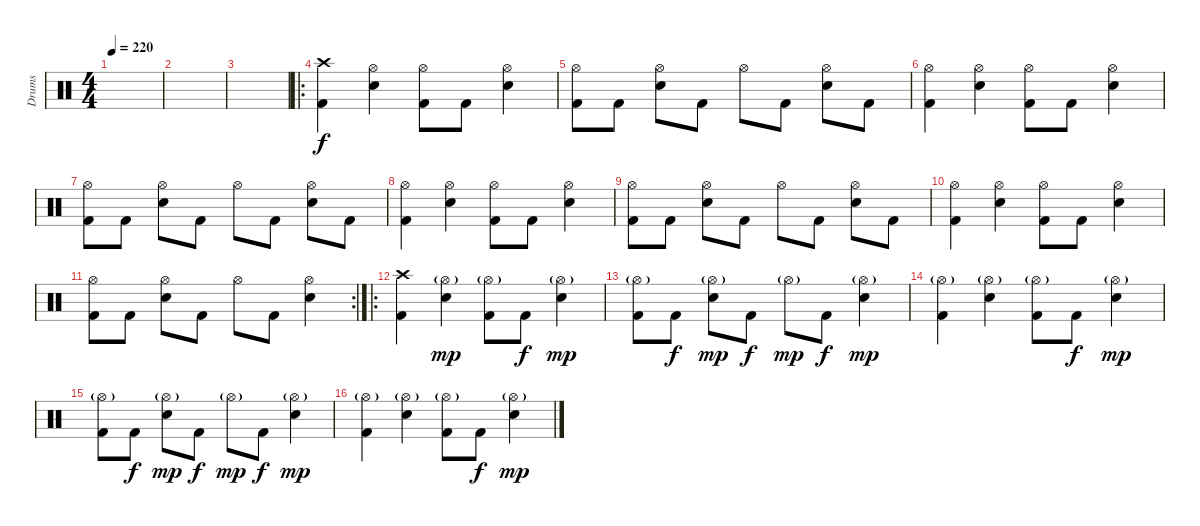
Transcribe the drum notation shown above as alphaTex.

\track ("Drums" "Drums") {instrument percussion}
\staff {score}
\articulation defaults
\ts (4 4)
\tempo 220
\clef neutral
\ks c
|
|
|
\ro
("Crash high (hit)" "Kick (hit) 2").4 ("Hi-Hat (open)" "Snare (hit) 2").4 ("Hi-Hat (open)" "Kick (hit) 2").8 "Kick (hit) 2".8 ("Hi-Hat (open)" "Snare (hit) 2").4 |
("Hi-Hat (open)" "Kick (hit) 2").8 "Kick (hit) 2".8 ("Hi-Hat (open)" "Snare (hit) 2").8 "Kick (hit) 2".8 "Hi-Hat (open)".8 "Kick (hit) 2".8 ("Hi-Hat (open)" "Snare (hit) 2").8 "Kick (hit) 2".8 |
("Hi-Hat (open)" "Kick (hit) 2").4 ("Hi-Hat (open)" "Snare (hit) 2").4 ("Hi-Hat (open)" "Kick (hit) 2").8 "Kick (hit) 2".8 ("Hi-Hat (open)" "Snare (hit) 2").4 |
("Hi-Hat (open)" "Kick (hit) 2").8 "Kick (hit) 2".8 ("Hi-Hat (open)" "Snare (hit) 2").8 "Kick (hit) 2".8 "Hi-Hat (open)".8 "Kick (hit) 2".8 ("Hi-Hat (open)" "Snare (hit) 2").8 "Kick (hit) 2".8 |
("Hi-Hat (open)" "Kick (hit) 2").4 ("Hi-Hat (open)" "Snare (hit) 2").4 ("Hi-Hat (open)" "Kick (hit) 2").8 "Kick (hit) 2".8 ("Hi-Hat (open)" "Snare (hit) 2").4 |
("Hi-Hat (open)" "Kick (hit) 2").8 "Kick (hit) 2".8 ("Hi-Hat (open)" "Snare (hit) 2").8 "Kick (hit) 2".8 "Hi-Hat (open)".8 "Kick (hit) 2".8 ("Hi-Hat (open)" "Snare (hit) 2").8 "Kick (hit) 2".8 |
("Hi-Hat (open)" "Kick (hit) 2").4 ("Hi-Hat (open)" "Snare (hit) 2").4 ("Hi-Hat (open)" "Kick (hit) 2").8 "Kick (hit) 2".8 ("Hi-Hat (open)" "Snare (hit) 2").4 |
\rc 2
("Hi-Hat (open)" "Kick (hit) 2").8 "Kick (hit) 2".8 ("Hi-Hat (open)" "Snare (hit) 2").8 "Kick (hit) 2".8 "Hi-Hat (open)".8 "Kick (hit) 2".8 ("Hi-Hat (open)" "Snare (hit) 2").4 |
\ro
("Crash high (hit)" "Kick (hit) 2").4 ("Hi-Hat (open)"{g} "Snare (hit) 2").4{dy mp} ("Hi-Hat (open)"{g} "Kick (hit) 2").8 "Kick (hit) 2".8{dy f} ("Hi-Hat (open)"{g} "Snare (hit) 2").4{dy mp} |
("Hi-Hat (open)"{g} "Kick (hit) 2").8 "Kick (hit) 2".8{dy f} ("Hi-Hat (open)"{g} "Snare (hit) 2").8{dy mp} "Kick (hit) 2".8{dy f} "Hi-Hat (open)"{g}.8{dy mp} "Kick (hit) 2".8{dy f} ("Hi-Hat (open)"{g} "Snare (hit) 2").4{dy mp} |
("Hi-Hat (open)"{g} "Kick (hit) 2").4 ("Hi-Hat (open)"{g} "Snare (hit) 2").4 ("Hi-Hat (open)"{g} "Kick (hit) 2").8 "Kick (hit) 2".8{dy f} ("Hi-Hat (open)"{g} "Snare (hit) 2").4{dy mp} |
("Hi-Hat (open)"{g} "Kick (hit) 2").8 "Kick (hit) 2".8{dy f} ("Hi-Hat (open)"{g} "Snare (hit) 2").8{dy mp} "Kick (hit) 2".8{dy f} "Hi-Hat (open)"{g}.8{dy mp} "Kick (hit) 2".8{dy f} ("Hi-Hat (open)"{g} "Snare (hit) 2").4{dy mp} |
("Hi-Hat (open)"{g} "Kick (hit) 2").4 ("Hi-Hat (open)"{g} "Snare (hit) 2").4 ("Hi-Hat (open)"{g} "Kick (hit) 2").8 "Kick (hit) 2".8{dy f} ("Hi-Hat (open)"{g} "Snare (hit) 2").4{dy mp}
